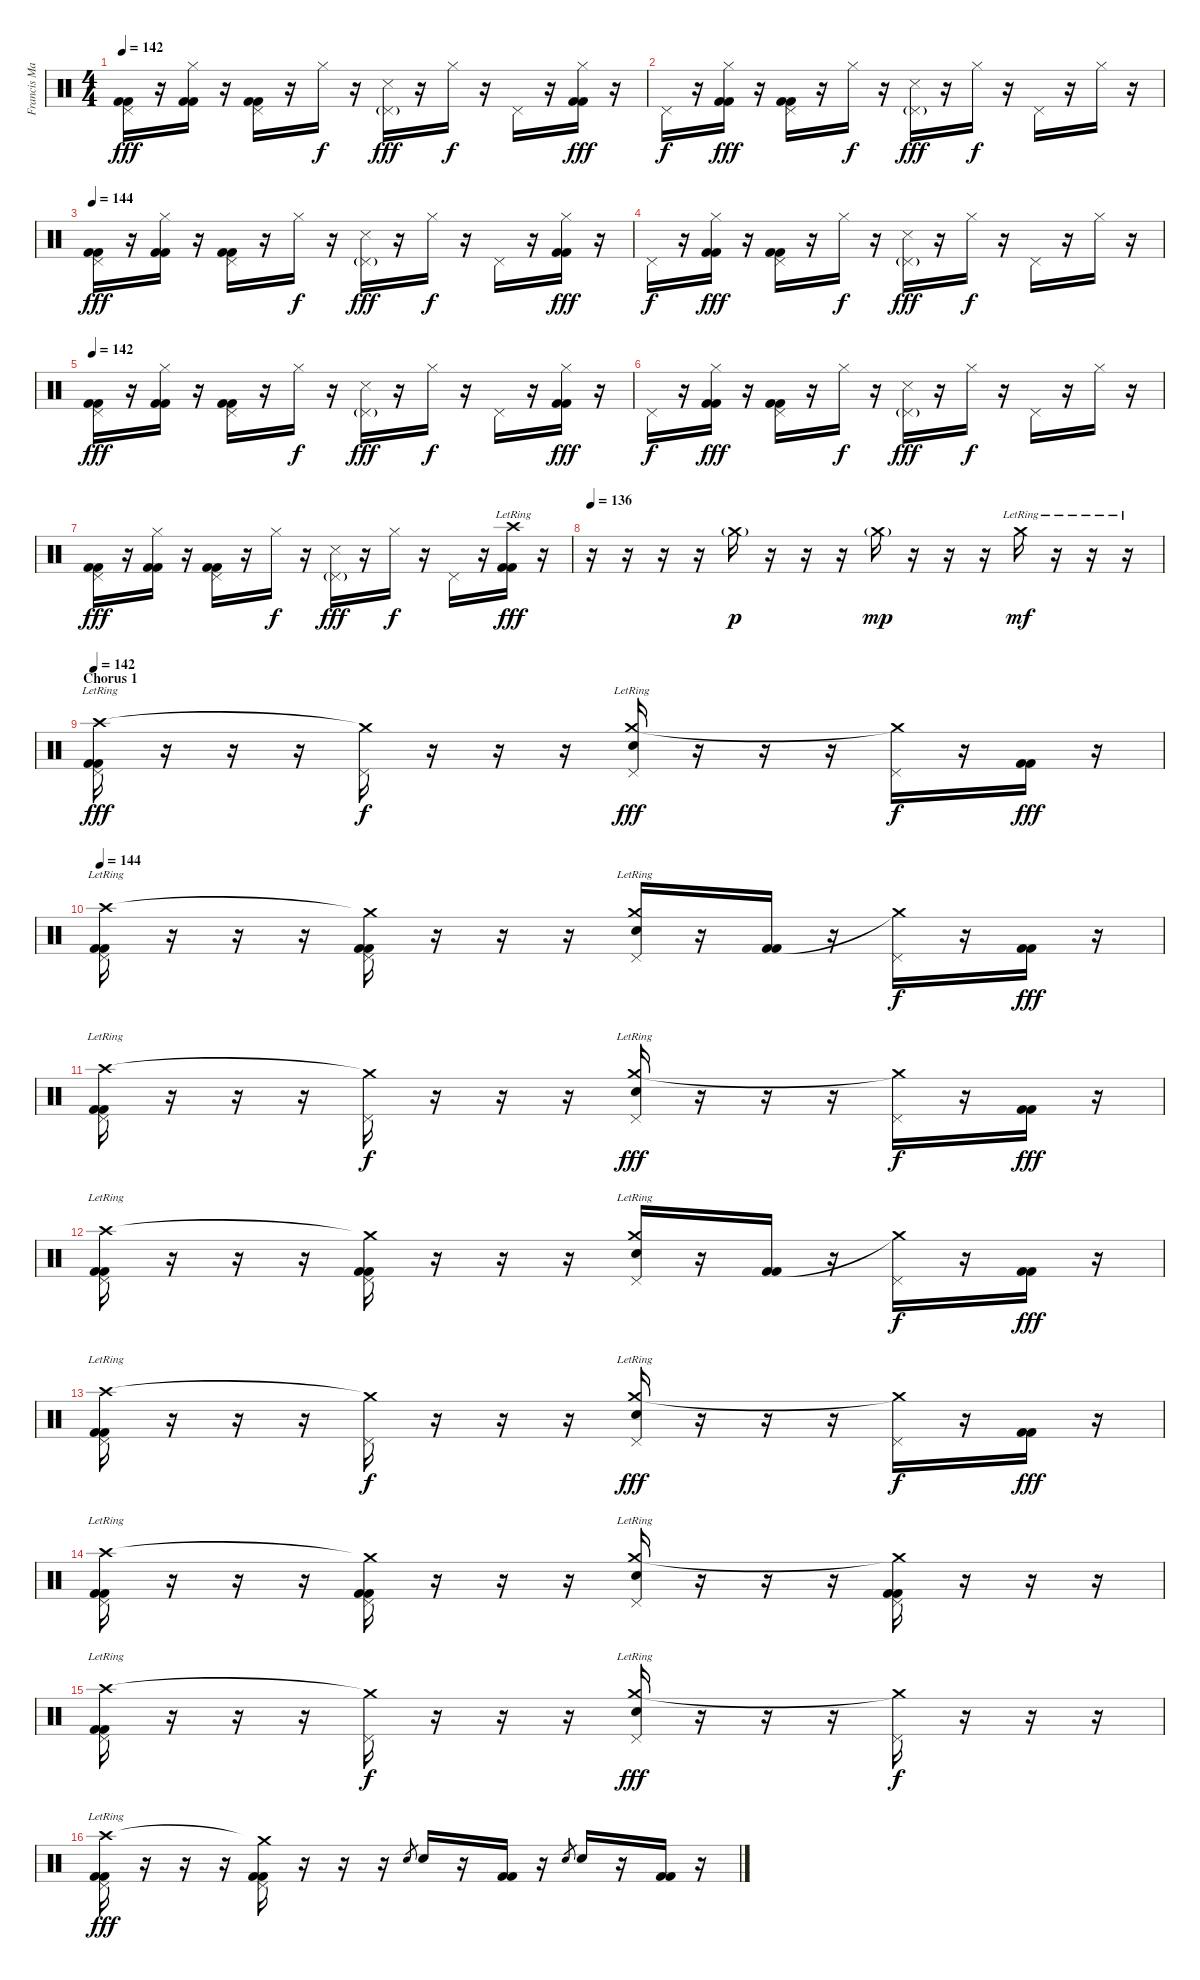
\track ("Francis Mark" "Francis Ma") {instrument percussion}
\staff {score}
\articulation defaults
\ts (4 4)
\tempo 142
\clef neutral
\ks c
("Pedal Hi-Hat (hit)" "Kick (hit) 2" "Kick (hit) 2").16{dy fff} r.16 ("Hi-Hat (closed)" "Kick (hit) 2" "Kick (hit) 2").16 r.16 ("Pedal Hi-Hat (hit)" "Kick (hit) 2" "Kick (hit) 2").16 r.16 "Hi-Hat (closed)".16{dy f} r.16 ("Pedal Hi-Hat (hit)"{g} "Snare (side stick) 3").16{dy fff} r.16 "Hi-Hat (closed)".16{dy f} r.16 "Pedal Hi-Hat (hit)".16 r.16 ("Hi-Hat (closed)" "Kick (hit) 2" "Kick (hit) 2").16{dy fff} r.16 |
"Pedal Hi-Hat (hit)".16{dy f} r.16 ("Hi-Hat (closed)" "Kick (hit) 2" "Kick (hit) 2").16{dy fff} r.16 ("Pedal Hi-Hat (hit)" "Kick (hit) 2" "Kick (hit) 2").16 r.16 "Hi-Hat (closed)".16{dy f} r.16 ("Pedal Hi-Hat (hit)"{g} "Snare (side stick) 3").16{dy fff} r.16 "Hi-Hat (closed)".16{dy f} r.16 "Pedal Hi-Hat (hit)".16 r.16 "Hi-Hat (closed)".16 r.16 |
\tempo 144
("Pedal Hi-Hat (hit)" "Kick (hit) 2" "Kick (hit) 2").16{dy fff} r.16 ("Hi-Hat (closed)" "Kick (hit) 2" "Kick (hit) 2").16 r.16 ("Pedal Hi-Hat (hit)" "Kick (hit) 2" "Kick (hit) 2").16 r.16 "Hi-Hat (closed)".16{dy f} r.16 ("Pedal Hi-Hat (hit)"{g} "Snare (side stick) 3").16{dy fff} r.16 "Hi-Hat (closed)".16{dy f} r.16 "Pedal Hi-Hat (hit)".16 r.16 ("Hi-Hat (closed)" "Kick (hit) 2" "Kick (hit) 2").16{dy fff} r.16 |
"Pedal Hi-Hat (hit)".16{dy f} r.16 ("Hi-Hat (closed)" "Kick (hit) 2" "Kick (hit) 2").16{dy fff} r.16 ("Pedal Hi-Hat (hit)" "Kick (hit) 2" "Kick (hit) 2").16 r.16 "Hi-Hat (closed)".16{dy f} r.16 ("Pedal Hi-Hat (hit)"{g} "Snare (side stick) 3").16{dy fff} r.16 "Hi-Hat (closed)".16{dy f} r.16 "Pedal Hi-Hat (hit)".16 r.16 "Hi-Hat (closed)".16 r.16 |
\tempo 142
("Pedal Hi-Hat (hit)" "Kick (hit) 2" "Kick (hit) 2").16{dy fff} r.16 ("Hi-Hat (closed)" "Kick (hit) 2" "Kick (hit) 2").16 r.16 ("Pedal Hi-Hat (hit)" "Kick (hit) 2" "Kick (hit) 2").16 r.16 "Hi-Hat (closed)".16{dy f} r.16 ("Pedal Hi-Hat (hit)"{g} "Snare (side stick) 3").16{dy fff} r.16 "Hi-Hat (closed)".16{dy f} r.16 "Pedal Hi-Hat (hit)".16 r.16 ("Hi-Hat (closed)" "Kick (hit) 2" "Kick (hit) 2").16{dy fff} r.16 |
"Pedal Hi-Hat (hit)".16{dy f} r.16 ("Hi-Hat (closed)" "Kick (hit) 2" "Kick (hit) 2").16{dy fff} r.16 ("Pedal Hi-Hat (hit)" "Kick (hit) 2" "Kick (hit) 2").16 r.16 "Hi-Hat (closed)".16{dy f} r.16 ("Pedal Hi-Hat (hit)"{g} "Snare (side stick) 3").16{dy fff} r.16 "Hi-Hat (closed)".16{dy f} r.16 "Pedal Hi-Hat (hit)".16 r.16 "Hi-Hat (closed)".16 r.16 |
("Pedal Hi-Hat (hit)" "Kick (hit) 2" "Kick (hit) 2").16{dy fff} r.16 ("Hi-Hat (closed)" "Kick (hit) 2" "Kick (hit) 2").16 r.16 ("Pedal Hi-Hat (hit)" "Kick (hit) 2" "Kick (hit) 2").16 r.16 "Hi-Hat (closed)".16{dy f} r.16 ("Pedal Hi-Hat (hit)"{g} "Snare (side stick) 3").16{dy fff} r.16 "Hi-Hat (closed)".16{dy f} r.16 "Pedal Hi-Hat (hit)".16 r.16 ("Crash high (hit)"{lr} "Kick (hit) 2" "Kick (hit) 2").16{dy fff} r.16 |
\tempo 136
r.16 r.16 r.16 r.16 "Crash medium (hit)"{g}.16{dy p} r.16 r.16 r.16 "Crash medium (hit)"{g}.16{dy mp} r.16 r.16 r.16 "Crash medium (hit)"{lr}.16{dy mf} r.16 r.16 r.16 |
\section ("" "Chorus 1")
\tempo 142
("Crash high (hit)"{lr} "Pedal Hi-Hat (hit)" "Kick (hit) 2" "Kick (hit) 2").16{dy fff} r.16 r.16 r.16 ("Crash medium (hit)"{t} "Pedal Hi-Hat (hit)").16{dy f} r.16 r.16 r.16 ("Crash medium (hit)"{lr} "Pedal Hi-Hat (hit)" "Electric Snare (hit)").16{dy fff} r.16 r.16 r.16 ("Crash medium (hit)"{t} "Pedal Hi-Hat (hit)").16{dy f} r.16 ("Kick (hit) 2" "Kick (hit) 2").16{dy fff} r.16 |
\tempo 144
("Crash high (hit)"{lr} "Pedal Hi-Hat (hit)" "Kick (hit) 2" "Kick (hit) 2").16 r.16 r.16 r.16 ("Crash medium (hit)"{t} "Pedal Hi-Hat (hit)" "Kick (hit) 2" "Kick (hit) 2").16 r.16 r.16 r.16 ("Crash medium (hit)"{lr} "Pedal Hi-Hat (hit)" "Electric Snare (hit)").16 r.16 ("Kick (hit) 2" "Kick (hit) 2").16 r.16 ("Crash medium (hit)"{t} "Pedal Hi-Hat (hit)").16{dy f} r.16 ("Kick (hit) 2" "Kick (hit) 2").16{dy fff} r.16 |
("Crash high (hit)"{lr} "Pedal Hi-Hat (hit)" "Kick (hit) 2" "Kick (hit) 2").16 r.16 r.16 r.16 ("Crash medium (hit)"{t} "Pedal Hi-Hat (hit)").16{dy f} r.16 r.16 r.16 ("Crash medium (hit)"{lr} "Pedal Hi-Hat (hit)" "Electric Snare (hit)").16{dy fff} r.16 r.16 r.16 ("Crash medium (hit)"{t} "Pedal Hi-Hat (hit)").16{dy f} r.16 ("Kick (hit) 2" "Kick (hit) 2").16{dy fff} r.16 |
("Crash high (hit)"{lr} "Pedal Hi-Hat (hit)" "Kick (hit) 2" "Kick (hit) 2").16 r.16 r.16 r.16 ("Crash medium (hit)"{t} "Pedal Hi-Hat (hit)" "Kick (hit) 2" "Kick (hit) 2").16 r.16 r.16 r.16 ("Crash medium (hit)"{lr} "Pedal Hi-Hat (hit)" "Electric Snare (hit)").16 r.16 ("Kick (hit) 2" "Kick (hit) 2").16 r.16 ("Crash medium (hit)"{t} "Pedal Hi-Hat (hit)").16{dy f} r.16 ("Kick (hit) 2" "Kick (hit) 2").16{dy fff} r.16 |
("Crash high (hit)"{lr} "Pedal Hi-Hat (hit)" "Kick (hit) 2" "Kick (hit) 2").16 r.16 r.16 r.16 ("Crash medium (hit)"{t} "Pedal Hi-Hat (hit)").16{dy f} r.16 r.16 r.16 ("Crash medium (hit)"{lr} "Pedal Hi-Hat (hit)" "Electric Snare (hit)").16{dy fff} r.16 r.16 r.16 ("Crash medium (hit)"{t} "Pedal Hi-Hat (hit)").16{dy f} r.16 ("Kick (hit) 2" "Kick (hit) 2").16{dy fff} r.16 |
("Crash high (hit)"{lr} "Pedal Hi-Hat (hit)" "Kick (hit) 2" "Kick (hit) 2").16 r.16 r.16 r.16 ("Crash medium (hit)"{t} "Pedal Hi-Hat (hit)" "Kick (hit) 2" "Kick (hit) 2").16 r.16 r.16 r.16 ("Crash medium (hit)"{lr} "Pedal Hi-Hat (hit)" "Electric Snare (hit)").16 r.16 r.16 r.16 ("Crash medium (hit)"{t} "Pedal Hi-Hat (hit)" "Kick (hit) 2" "Kick (hit) 2").16 r.16 r.16 r.16 |
("Crash high (hit)"{lr} "Pedal Hi-Hat (hit)" "Kick (hit) 2" "Kick (hit) 2").16 r.16 r.16 r.16 ("Crash medium (hit)"{t} "Pedal Hi-Hat (hit)").16{dy f} r.16 r.16 r.16 ("Crash medium (hit)"{lr} "Pedal Hi-Hat (hit)" "Electric Snare (hit)").16{dy fff} r.16 r.16 r.16 ("Crash medium (hit)"{t} "Pedal Hi-Hat (hit)").16{dy f} r.16 r.16 r.16 |
("Crash high (hit)"{lr} "Pedal Hi-Hat (hit)" "Kick (hit) 2" "Kick (hit) 2").16{dy fff} r.16 r.16 r.16 ("Crash medium (hit)"{t} "Pedal Hi-Hat (hit)" "Kick (hit) 2" "Kick (hit) 2").16 r.16 r.16 r.16 "Electric Snare (hit)".8{gr} "Electric Snare (hit)".16 r.16 ("Kick (hit) 2" "Kick (hit) 2").16 r.16 "Electric Snare (hit)".8{gr} "Electric Snare (hit)".16 r.16 ("Kick (hit) 2" "Kick (hit) 2").16 r.16
